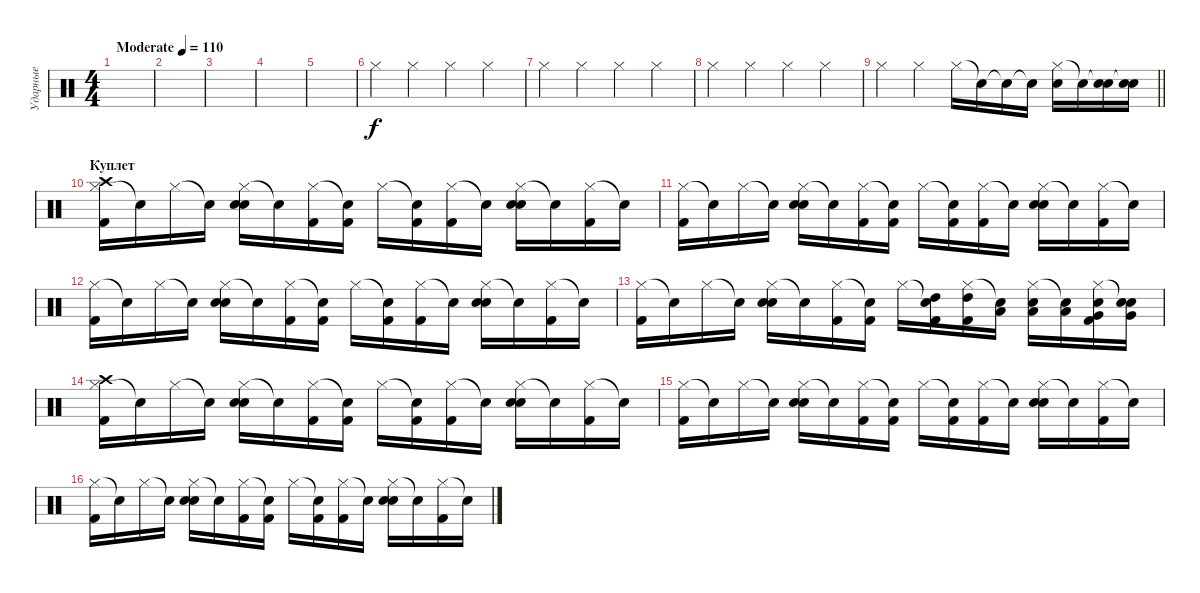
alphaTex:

\track ("Ударные" "Ударные") {instrument percussion}
\staff {score}
\articulation defaults
\ts (4 4)
\tempo (110 "Moderate")
\clef neutral
\ks c
|
|
|
|
|
"Hi-Hat (closed)".4 "Hi-Hat (closed)".4 "Hi-Hat (closed)".4 "Hi-Hat (closed)".4 |
"Hi-Hat (closed)".4 "Hi-Hat (closed)".4 "Hi-Hat (closed)".4 "Hi-Hat (closed)".4 |
"Hi-Hat (closed)".4 "Hi-Hat (closed)".4 "Hi-Hat (closed)".4 "Hi-Hat (closed)".4 |
\barLineRight lightlight "Hi-Hat (closed)".4 "Hi-Hat (closed)".4 "Hi-Hat (closed)".16 "Snare (hit)"{t}.16 "Snare (hit)"{t}.16 "Snare (hit)"{t}.16
("Hi-Hat (closed)" "Electric Snare (hit)").16 "Snare (hit)"{t}.16 ("Snare (hit)"{t} "Electric Snare (hit)").16 ("Snare (hit)"{t} "Electric Snare (hit)").16 |
\section ("" "Куплет")
("Hi-Hat (closed)" "Crash high (hit)" "Kick (hit) 2").16 "Snare (hit)"{t}.16 "Hi-Hat (closed)".16 "Snare (hit)"{t}.16 ("Hi-Hat (closed)" "Snare (hit) 2" "Electric Snare (hit)").16 "Snare (hit)"{t}.16 ("Hi-Hat (closed)" "Kick (hit) 2").16 ("Snare (hit)"{t} "Kick (hit) 2").16 "Hi-Hat (closed)".16 ("Snare (hit)"{t} "Kick (hit) 2").16 ("Hi-Hat (closed)" "Kick (hit) 2").16 "Snare (hit)"{t}.16 ("Hi-Hat (closed)" "Electric Snare (hit)" "Snare (hit) 2").16 "Snare (hit)"{t}.16 ("Hi-Hat (closed)" "Kick (hit) 2").16 "Snare (hit)"{t}.16 |
("Hi-Hat (closed)" "Kick (hit) 2").16 "Snare (hit)"{t}.16 "Hi-Hat (closed)".16 "Snare (hit)"{t}.16 ("Hi-Hat (closed)" "Snare (hit) 2" "Electric Snare (hit)").16 "Snare (hit)"{t}.16 ("Hi-Hat (closed)" "Kick (hit) 2").16 ("Snare (hit)"{t} "Kick (hit) 2").16 "Hi-Hat (closed)".16 ("Snare (hit)"{t} "Kick (hit) 2").16 ("Hi-Hat (closed)" "Kick (hit) 2").16 "Snare (hit)"{t}.16 ("Hi-Hat (closed)" "Electric Snare (hit)" "Snare (hit) 2").16 "Snare (hit)"{t}.16 ("Hi-Hat (closed)" "Kick (hit) 2").16 "Snare (hit)"{t}.16 |
("Hi-Hat (closed)" "Kick (hit) 2").16 "Snare (hit)"{t}.16 "Hi-Hat (closed)".16 "Snare (hit)"{t}.16 ("Hi-Hat (closed)" "Snare (hit) 2" "Electric Snare (hit)").16 "Snare (hit)"{t}.16 ("Hi-Hat (closed)" "Kick (hit) 2").16 ("Snare (hit)"{t} "Kick (hit) 2").16 "Hi-Hat (closed)".16 ("Snare (hit)"{t} "Kick (hit) 2").16 ("Hi-Hat (closed)" "Kick (hit) 2").16 "Snare (hit)"{t}.16 ("Hi-Hat (closed)" "Electric Snare (hit)" "Snare (hit) 2").16 "Snare (hit)"{t}.16 ("Hi-Hat (closed)" "Kick (hit) 2").16 "Snare (hit)"{t}.16 |
("Hi-Hat (closed)" "Kick (hit) 2").16 "Snare (hit)"{t}.16 "Hi-Hat (closed)".16 "Snare (hit)"{t}.16 ("Hi-Hat (closed)" "Snare (hit) 2" "Electric Snare (hit)").16 "Snare (hit)"{t}.16 ("Hi-Hat (closed)" "Kick (hit) 2").16 ("Snare (hit)"{t} "Kick (hit) 2").16 "Hi-Hat (closed)".16 ("Snare (hit)"{t} "High Tom (hit)" "Kick (hit) 2").16 ("Hi-Hat (closed)" "High Tom (hit)" "Kick (hit) 2").16 ("Snare (hit)"{t} "Low Tom (hit)").16 ("Hi-Hat (closed)" "Low Tom (hit)" "Snare (hit) 2").16 ("Snare (hit)"{t} "Low Tom (hit)").16 ("Hi-Hat (closed)" "Very Low Tom (hit)" "Electric Snare (hit)" "Kick (hit) 2").16 ("Snare (hit)"{t} "Very Low Tom (hit)" "Electric Snare (hit)").16 |
("Hi-Hat (closed)" "Crash high (hit)" "Kick (hit) 2").16 "Snare (hit)"{t}.16 "Hi-Hat (closed)".16 "Snare (hit)"{t}.16 ("Hi-Hat (closed)" "Snare (hit) 2" "Electric Snare (hit)").16 "Snare (hit)"{t}.16 ("Hi-Hat (closed)" "Kick (hit) 2").16 ("Snare (hit)"{t} "Kick (hit) 2").16 "Hi-Hat (closed)".16 ("Snare (hit)"{t} "Kick (hit) 2").16 ("Hi-Hat (closed)" "Kick (hit) 2").16 "Snare (hit)"{t}.16 ("Hi-Hat (closed)" "Electric Snare (hit)" "Snare (hit) 2").16 "Snare (hit)"{t}.16 ("Hi-Hat (closed)" "Kick (hit) 2").16 "Snare (hit)"{t}.16 |
("Hi-Hat (closed)" "Kick (hit) 2").16 "Snare (hit)"{t}.16 "Hi-Hat (closed)".16 "Snare (hit)"{t}.16 ("Hi-Hat (closed)" "Snare (hit) 2" "Electric Snare (hit)").16 "Snare (hit)"{t}.16 ("Hi-Hat (closed)" "Kick (hit) 2").16 ("Snare (hit)"{t} "Kick (hit) 2").16 "Hi-Hat (closed)".16 ("Snare (hit)"{t} "Kick (hit) 2").16 ("Hi-Hat (closed)" "Kick (hit) 2").16 "Snare (hit)"{t}.16 ("Hi-Hat (closed)" "Electric Snare (hit)" "Snare (hit) 2").16 "Snare (hit)"{t}.16 ("Hi-Hat (closed)" "Kick (hit) 2").16 "Snare (hit)"{t}.16 |
("Hi-Hat (closed)" "Kick (hit) 2").16 "Snare (hit)"{t}.16 "Hi-Hat (closed)".16 "Snare (hit)"{t}.16 ("Hi-Hat (closed)" "Snare (hit) 2" "Electric Snare (hit)").16 "Snare (hit)"{t}.16 ("Hi-Hat (closed)" "Kick (hit) 2").16 ("Snare (hit)"{t} "Kick (hit) 2").16 "Hi-Hat (closed)".16 ("Snare (hit)"{t} "Kick (hit) 2").16 ("Hi-Hat (closed)" "Kick (hit) 2").16 "Snare (hit)"{t}.16 ("Hi-Hat (closed)" "Electric Snare (hit)" "Snare (hit) 2").16 "Snare (hit)"{t}.16 ("Hi-Hat (closed)" "Kick (hit) 2").16 "Snare (hit)"{t}.16
